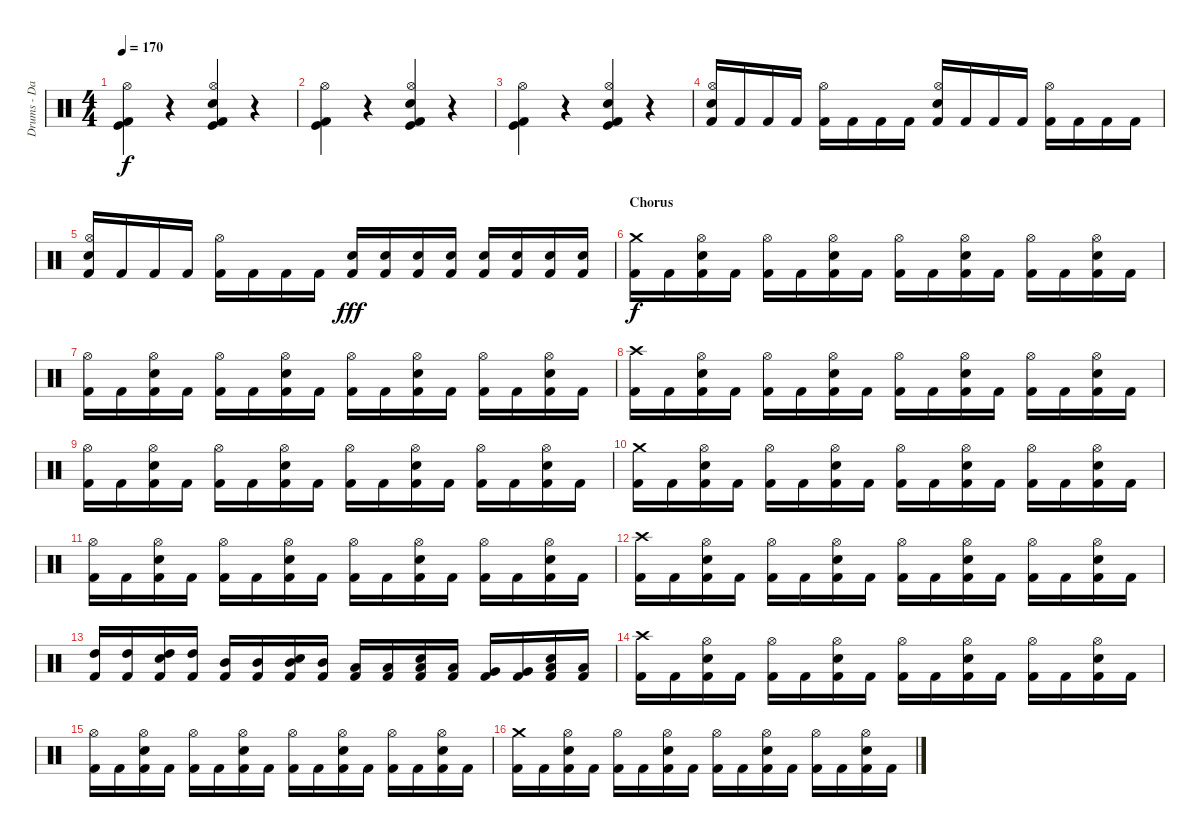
\track ("Drums - Daniel Zimmermann" "Drums - Da") {instrument percussion}
\staff {score}
\articulation defaults
\ts (4 4)
\tempo 170
\clef neutral
\ks c
("Kick (hit) 2" "Kick (hit)" "Hi-Hat (open)").4{dy f} r.4 ("Kick (hit) 2" "Kick (hit)" "Electric Snare (hit)" "Hi-Hat (open)").4 r.4 |
("Kick (hit) 2" "Kick (hit)" "Hi-Hat (open)").4 r.4 ("Kick (hit) 2" "Kick (hit)" "Electric Snare (hit)" "Hi-Hat (open)").4 r.4 |
("Kick (hit) 2" "Kick (hit)" "Hi-Hat (open)").4 r.4 ("Kick (hit) 2" "Kick (hit)" "Electric Snare (hit)" "Hi-Hat (open)").4 r.4 |
("Kick (hit) 2" "Electric Snare (hit)" "Hi-Hat (open)").16 "Kick (hit) 2".16 "Kick (hit) 2".16 "Kick (hit) 2".16 ("Kick (hit) 2" "Hi-Hat (open)").16 "Kick (hit) 2".16 "Kick (hit) 2".16 "Kick (hit) 2".16 ("Kick (hit) 2" "Electric Snare (hit)" "Hi-Hat (open)").16 "Kick (hit) 2".16 "Kick (hit) 2".16 "Kick (hit) 2".16 ("Kick (hit) 2" "Hi-Hat (open)").16 "Kick (hit) 2".16 "Kick (hit) 2".16 "Kick (hit) 2".16 |
("Kick (hit) 2" "Electric Snare (hit)" "Hi-Hat (open)").16 "Kick (hit) 2".16 "Kick (hit) 2".16 "Kick (hit) 2".16 ("Kick (hit) 2" "Hi-Hat (open)").16 "Kick (hit) 2".16 "Kick (hit) 2".16 "Kick (hit) 2".16 ("Kick (hit) 2" "Electric Snare (hit)").16{dy fff} ("Kick (hit) 2" "Electric Snare (hit)").16 ("Kick (hit) 2" "Electric Snare (hit)").16 ("Kick (hit) 2" "Electric Snare (hit)").16 ("Kick (hit) 2" "Electric Snare (hit)").16 ("Kick (hit) 2" "Electric Snare (hit)").16 ("Kick (hit) 2" "Electric Snare (hit)").16 ("Kick (hit) 2" "Electric Snare (hit)").16 |
\section ("" "Chorus")
("Kick (hit) 2" "Crash medium (hit)").16{dy f} "Kick (hit) 2".16 ("Kick (hit) 2" "Electric Snare (hit)" "Hi-Hat (open)").16 "Kick (hit) 2".16 ("Kick (hit) 2" "Hi-Hat (open)").16 "Kick (hit) 2".16 ("Kick (hit) 2" "Electric Snare (hit)" "Hi-Hat (open)").16 "Kick (hit) 2".16 ("Kick (hit) 2" "Hi-Hat (open)").16 "Kick (hit) 2".16 ("Kick (hit) 2" "Electric Snare (hit)" "Hi-Hat (open)").16 "Kick (hit) 2".16 ("Kick (hit) 2" "Hi-Hat (open)").16 "Kick (hit) 2".16 ("Kick (hit) 2" "Electric Snare (hit)" "Hi-Hat (open)").16 "Kick (hit) 2".16 |
("Kick (hit) 2" "Hi-Hat (open)").16 "Kick (hit) 2".16 ("Kick (hit) 2" "Electric Snare (hit)" "Hi-Hat (open)").16 "Kick (hit) 2".16 ("Kick (hit) 2" "Hi-Hat (open)").16 "Kick (hit) 2".16 ("Kick (hit) 2" "Electric Snare (hit)" "Hi-Hat (open)").16 "Kick (hit) 2".16 ("Kick (hit) 2" "Hi-Hat (open)").16 "Kick (hit) 2".16 ("Kick (hit) 2" "Electric Snare (hit)" "Hi-Hat (open)").16 "Kick (hit) 2".16 ("Kick (hit) 2" "Hi-Hat (open)").16 "Kick (hit) 2".16 ("Kick (hit) 2" "Electric Snare (hit)" "Hi-Hat (open)").16 "Kick (hit) 2".16 |
("Kick (hit) 2" "Crash high (hit)").16 "Kick (hit) 2".16 ("Kick (hit) 2" "Electric Snare (hit)" "Hi-Hat (open)").16 "Kick (hit) 2".16 ("Kick (hit) 2" "Hi-Hat (open)").16 "Kick (hit) 2".16 ("Kick (hit) 2" "Electric Snare (hit)" "Hi-Hat (open)").16 "Kick (hit) 2".16 ("Kick (hit) 2" "Hi-Hat (open)").16 "Kick (hit) 2".16 ("Kick (hit) 2" "Electric Snare (hit)" "Hi-Hat (open)").16 "Kick (hit) 2".16 ("Kick (hit) 2" "Hi-Hat (open)").16 "Kick (hit) 2".16 ("Kick (hit) 2" "Electric Snare (hit)" "Hi-Hat (open)").16 "Kick (hit) 2".16 |
("Kick (hit) 2" "Hi-Hat (open)").16 "Kick (hit) 2".16 ("Kick (hit) 2" "Electric Snare (hit)" "Hi-Hat (open)").16 "Kick (hit) 2".16 ("Kick (hit) 2" "Hi-Hat (open)").16 "Kick (hit) 2".16 ("Kick (hit) 2" "Electric Snare (hit)" "Hi-Hat (open)").16 "Kick (hit) 2".16 ("Kick (hit) 2" "Hi-Hat (open)").16 "Kick (hit) 2".16 ("Kick (hit) 2" "Electric Snare (hit)" "Hi-Hat (open)").16 "Kick (hit) 2".16 ("Kick (hit) 2" "Hi-Hat (open)").16 "Kick (hit) 2".16 ("Kick (hit) 2" "Electric Snare (hit)" "Hi-Hat (open)").16 "Kick (hit) 2".16 |
("Kick (hit) 2" "Crash medium (hit)").16 "Kick (hit) 2".16 ("Kick (hit) 2" "Electric Snare (hit)" "Hi-Hat (open)").16 "Kick (hit) 2".16 ("Kick (hit) 2" "Hi-Hat (open)").16 "Kick (hit) 2".16 ("Kick (hit) 2" "Electric Snare (hit)" "Hi-Hat (open)").16 "Kick (hit) 2".16 ("Kick (hit) 2" "Hi-Hat (open)").16 "Kick (hit) 2".16 ("Kick (hit) 2" "Electric Snare (hit)" "Hi-Hat (open)").16 "Kick (hit) 2".16 ("Kick (hit) 2" "Hi-Hat (open)").16 "Kick (hit) 2".16 ("Kick (hit) 2" "Electric Snare (hit)" "Hi-Hat (open)").16 "Kick (hit) 2".16 |
("Kick (hit) 2" "Hi-Hat (open)").16 "Kick (hit) 2".16 ("Kick (hit) 2" "Electric Snare (hit)" "Hi-Hat (open)").16 "Kick (hit) 2".16 ("Kick (hit) 2" "Hi-Hat (open)").16 "Kick (hit) 2".16 ("Kick (hit) 2" "Electric Snare (hit)" "Hi-Hat (open)").16 "Kick (hit) 2".16 ("Kick (hit) 2" "Hi-Hat (open)").16 "Kick (hit) 2".16 ("Kick (hit) 2" "Electric Snare (hit)" "Hi-Hat (open)").16 "Kick (hit) 2".16 ("Kick (hit) 2" "Hi-Hat (open)").16 "Kick (hit) 2".16 ("Kick (hit) 2" "Electric Snare (hit)" "Hi-Hat (open)").16 "Kick (hit) 2".16 |
("Kick (hit) 2" "Crash high (hit)").16 "Kick (hit) 2".16 ("Kick (hit) 2" "Electric Snare (hit)" "Hi-Hat (open)").16 "Kick (hit) 2".16 ("Kick (hit) 2" "Hi-Hat (open)").16 "Kick (hit) 2".16 ("Kick (hit) 2" "Electric Snare (hit)" "Hi-Hat (open)").16 "Kick (hit) 2".16 ("Kick (hit) 2" "Hi-Hat (open)").16 "Kick (hit) 2".16 ("Kick (hit) 2" "Electric Snare (hit)" "Hi-Hat (open)").16 "Kick (hit) 2".16 ("Kick (hit) 2" "Hi-Hat (open)").16 "Kick (hit) 2".16 ("Kick (hit) 2" "Electric Snare (hit)" "Hi-Hat (open)").16 "Kick (hit) 2".16 |
("Kick (hit) 2" "High Tom (hit)").16 ("Kick (hit) 2" "High Tom (hit)").16 ("Kick (hit) 2" "Electric Snare (hit)" "High Tom (hit)").16 ("Kick (hit) 2" "High Tom (hit)").16 ("Kick (hit) 2" "Mid Tom (hit)").16 ("Kick (hit) 2" "Mid Tom (hit)").16 ("Kick (hit) 2" "Electric Snare (hit)" "Mid Tom (hit)").16 ("Kick (hit) 2" "Mid Tom (hit)").16 ("Kick (hit) 2" "Low Tom (hit)").16 ("Kick (hit) 2" "Low Tom (hit)").16 ("Kick (hit) 2" "Electric Snare (hit)" "Low Tom (hit)").16 ("Kick (hit) 2" "Low Tom (hit)").16 ("Kick (hit) 2" "Very Low Tom (hit)").16 ("Kick (hit) 2" "Very Low Tom (hit)").16 ("Kick (hit) 2" "Electric Snare (hit)" "Low Floor Tom (hit)").16 ("Kick (hit) 2" "Low Floor Tom (hit)").16 |
("Kick (hit) 2" "Crash high (hit)").16 "Kick (hit) 2".16 ("Kick (hit) 2" "Electric Snare (hit)" "Hi-Hat (open)").16 "Kick (hit) 2".16 ("Kick (hit) 2" "Hi-Hat (open)").16 "Kick (hit) 2".16 ("Kick (hit) 2" "Electric Snare (hit)" "Hi-Hat (open)").16 "Kick (hit) 2".16 ("Kick (hit) 2" "Hi-Hat (open)").16 "Kick (hit) 2".16 ("Kick (hit) 2" "Electric Snare (hit)" "Hi-Hat (open)").16 "Kick (hit) 2".16 ("Kick (hit) 2" "Hi-Hat (open)").16 "Kick (hit) 2".16 ("Kick (hit) 2" "Electric Snare (hit)" "Hi-Hat (open)").16 "Kick (hit) 2".16 |
("Kick (hit) 2" "Hi-Hat (open)").16 "Kick (hit) 2".16 ("Kick (hit) 2" "Electric Snare (hit)" "Hi-Hat (open)").16 "Kick (hit) 2".16 ("Kick (hit) 2" "Hi-Hat (open)").16 "Kick (hit) 2".16 ("Kick (hit) 2" "Electric Snare (hit)" "Hi-Hat (open)").16 "Kick (hit) 2".16 ("Kick (hit) 2" "Hi-Hat (open)").16 "Kick (hit) 2".16 ("Kick (hit) 2" "Electric Snare (hit)" "Hi-Hat (open)").16 "Kick (hit) 2".16 ("Kick (hit) 2" "Hi-Hat (open)").16 "Kick (hit) 2".16 ("Kick (hit) 2" "Electric Snare (hit)" "Hi-Hat (open)").16 "Kick (hit) 2".16 |
("Kick (hit) 2" "Crash medium (hit)").16 "Kick (hit) 2".16 ("Kick (hit) 2" "Electric Snare (hit)" "Hi-Hat (open)").16 "Kick (hit) 2".16 ("Kick (hit) 2" "Hi-Hat (open)").16 "Kick (hit) 2".16 ("Kick (hit) 2" "Electric Snare (hit)" "Hi-Hat (open)").16 "Kick (hit) 2".16 ("Kick (hit) 2" "Hi-Hat (open)").16 "Kick (hit) 2".16 ("Kick (hit) 2" "Electric Snare (hit)" "Hi-Hat (open)").16 "Kick (hit) 2".16 ("Kick (hit) 2" "Hi-Hat (open)").16 "Kick (hit) 2".16 ("Kick (hit) 2" "Electric Snare (hit)" "Hi-Hat (open)").16 "Kick (hit) 2".16
